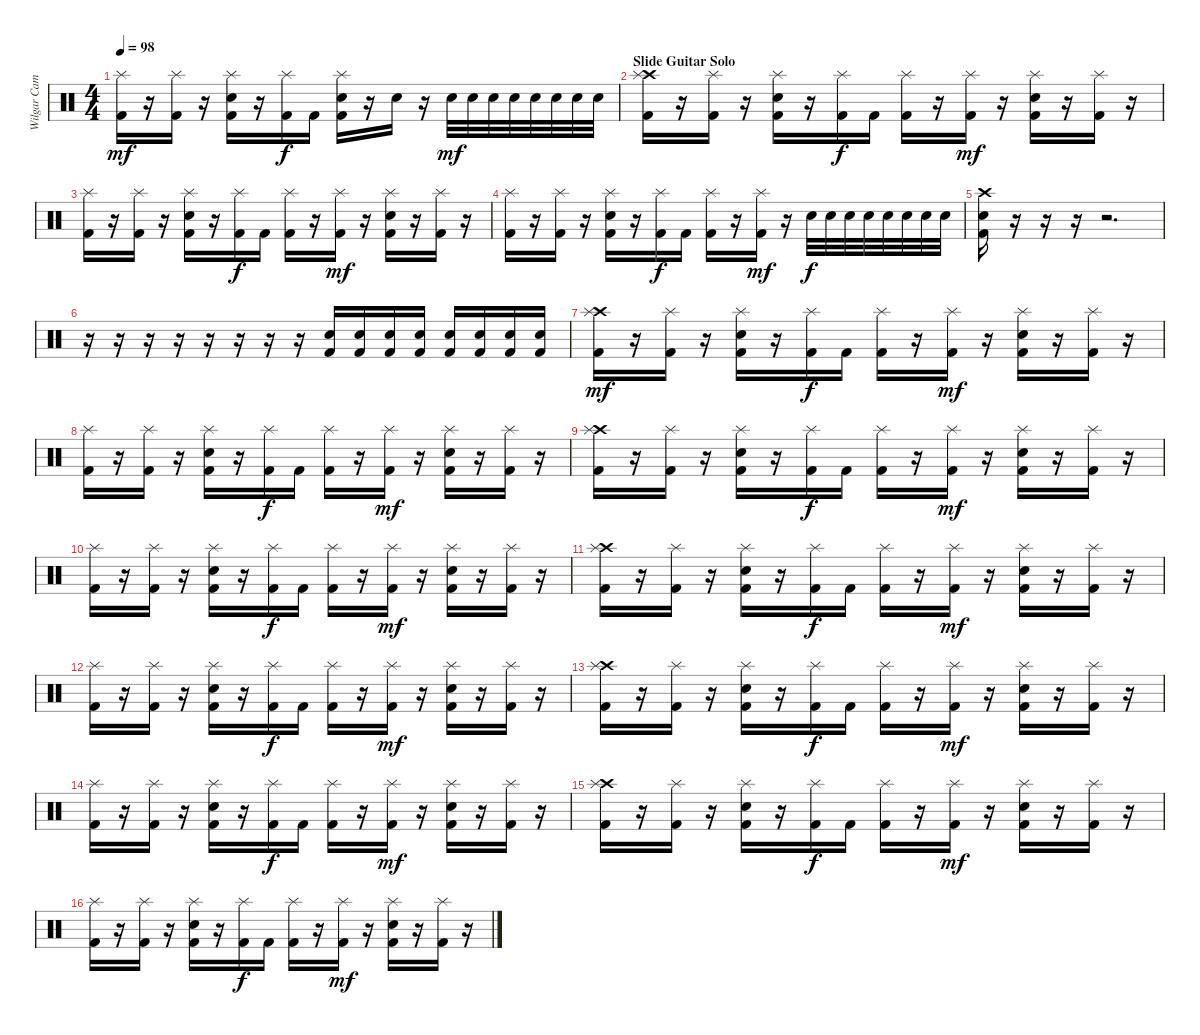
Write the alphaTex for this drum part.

\track ("Wilgar Campbell" "Wilgar Cam") {instrument percussion}
\staff {score}
\articulation defaults
\ts (4 4)
\tempo 98
\clef neutral
\ks c
("Splash (hit)" "Kick (hit) 2").16{dy mf} r.16 ("Splash (hit)" "Kick (hit) 2").16 r.16 ("Splash (hit)" "Snare (hit) 2" "Kick (hit) 2").16 r.16 ("Splash (hit)" "Kick (hit) 2").16{dy f} "Kick (hit) 2".16 ("Splash (hit)" "Snare (hit) 2" "Kick (hit) 2").16 r.16 "Snare (hit) 2".16 r.16 "Electric Snare (hit)".32{dy mf} "Electric Snare (hit)".32 "Electric Snare (hit)".32 "Electric Snare (hit)".32 "Snare (hit) 2".32 "Snare (hit) 2".32 "Snare (hit) 2".32 "Snare (hit) 2".32 |
\section ("" "Slide Guitar Solo")
("Crash high (hit)" "Splash (hit)" "Kick (hit) 2").16 r.16 ("Splash (hit)" "Kick (hit) 2").16 r.16 ("Splash (hit)" "Snare (hit) 2" "Kick (hit) 2").16 r.16 ("Splash (hit)" "Kick (hit) 2").16{dy f} "Kick (hit) 2".16 ("Splash (hit)" "Kick (hit) 2").16 r.16 ("Splash (hit)" "Kick (hit) 2").16{dy mf} r.16 ("Splash (hit)" "Snare (hit) 2" "Kick (hit) 2").16 r.16 ("Splash (hit)" "Kick (hit) 2").16 r.16 |
("Splash (hit)" "Kick (hit) 2").16 r.16 ("Splash (hit)" "Kick (hit) 2").16 r.16 ("Splash (hit)" "Snare (hit) 2" "Kick (hit) 2").16 r.16 ("Splash (hit)" "Kick (hit) 2").16{dy f} "Kick (hit) 2".16 ("Splash (hit)" "Kick (hit) 2").16 r.16 ("Splash (hit)" "Kick (hit) 2").16{dy mf} r.16 ("Splash (hit)" "Snare (hit) 2" "Kick (hit) 2").16 r.16 ("Splash (hit)" "Kick (hit) 2").16 r.16 |
("Splash (hit)" "Kick (hit) 2").16 r.16 ("Splash (hit)" "Kick (hit) 2").16 r.16 ("Splash (hit)" "Snare (hit) 2" "Kick (hit) 2").16 r.16 ("Splash (hit)" "Kick (hit) 2").16{dy f} "Kick (hit) 2".16 ("Splash (hit)" "Kick (hit) 2").16 r.16 ("Splash (hit)" "Kick (hit) 2").16{dy mf} r.16 "Snare (hit) 2".32{dy f} "Snare (hit) 2".32 "Snare (hit) 2".32 "Snare (hit) 2".32 "Snare (hit) 2".32 "Snare (hit) 2".32 "Snare (hit) 2".32 "Snare (hit) 2".32 |
("Crash high (hit)" "Snare (hit) 2" "Kick (hit) 2").16 r.16 r.16 r.16 r.2{d} |
r.16 r.16 r.16 r.16 r.16 r.16 r.16 r.16 ("Electric Snare (hit)" "Kick (hit) 2").16 ("Snare (hit) 2" "Kick (hit) 2").16 ("Snare (hit) 2" "Kick (hit) 2").16 ("Snare (hit) 2" "Kick (hit) 2").16 ("Snare (hit) 2" "Kick (hit) 2").16 ("Snare (hit) 2" "Kick (hit) 2").16 ("Snare (hit) 2" "Kick (hit) 2").16 ("Snare (hit) 2" "Kick (hit) 2").16 |
("Crash high (hit)" "Splash (hit)" "Kick (hit) 2").16{dy mf} r.16 ("Splash (hit)" "Kick (hit) 2").16 r.16 ("Splash (hit)" "Snare (hit) 2" "Kick (hit) 2").16 r.16 ("Splash (hit)" "Kick (hit) 2").16{dy f} "Kick (hit) 2".16 ("Splash (hit)" "Kick (hit) 2").16 r.16 ("Splash (hit)" "Kick (hit) 2").16{dy mf} r.16 ("Splash (hit)" "Snare (hit) 2" "Kick (hit) 2").16 r.16 ("Splash (hit)" "Kick (hit) 2").16 r.16 |
("Splash (hit)" "Kick (hit) 2").16 r.16 ("Splash (hit)" "Kick (hit) 2").16 r.16 ("Splash (hit)" "Snare (hit) 2" "Kick (hit) 2").16 r.16 ("Splash (hit)" "Kick (hit) 2").16{dy f} "Kick (hit) 2".16 ("Splash (hit)" "Kick (hit) 2").16 r.16 ("Splash (hit)" "Kick (hit) 2").16{dy mf} r.16 ("Splash (hit)" "Snare (hit) 2" "Kick (hit) 2").16 r.16 ("Splash (hit)" "Kick (hit) 2").16 r.16 |
("Crash high (hit)" "Splash (hit)" "Kick (hit) 2").16 r.16 ("Splash (hit)" "Kick (hit) 2").16 r.16 ("Splash (hit)" "Snare (hit) 2" "Kick (hit) 2").16 r.16 ("Splash (hit)" "Kick (hit) 2").16{dy f} "Kick (hit) 2".16 ("Splash (hit)" "Kick (hit) 2").16 r.16 ("Splash (hit)" "Kick (hit) 2").16{dy mf} r.16 ("Splash (hit)" "Snare (hit) 2" "Kick (hit) 2").16 r.16 ("Splash (hit)" "Kick (hit) 2").16 r.16 |
("Splash (hit)" "Kick (hit) 2").16 r.16 ("Splash (hit)" "Kick (hit) 2").16 r.16 ("Splash (hit)" "Snare (hit) 2" "Kick (hit) 2").16 r.16 ("Splash (hit)" "Kick (hit) 2").16{dy f} "Kick (hit) 2".16 ("Splash (hit)" "Kick (hit) 2").16 r.16 ("Splash (hit)" "Kick (hit) 2").16{dy mf} r.16 ("Splash (hit)" "Snare (hit) 2" "Kick (hit) 2").16 r.16 ("Splash (hit)" "Kick (hit) 2").16 r.16 |
("Crash high (hit)" "Splash (hit)" "Kick (hit) 2").16 r.16 ("Splash (hit)" "Kick (hit) 2").16 r.16 ("Splash (hit)" "Snare (hit) 2" "Kick (hit) 2").16 r.16 ("Splash (hit)" "Kick (hit) 2").16{dy f} "Kick (hit) 2".16 ("Splash (hit)" "Kick (hit) 2").16 r.16 ("Splash (hit)" "Kick (hit) 2").16{dy mf} r.16 ("Splash (hit)" "Snare (hit) 2" "Kick (hit) 2").16 r.16 ("Splash (hit)" "Kick (hit) 2").16 r.16 |
("Splash (hit)" "Kick (hit) 2").16 r.16 ("Splash (hit)" "Kick (hit) 2").16 r.16 ("Splash (hit)" "Snare (hit) 2" "Kick (hit) 2").16 r.16 ("Splash (hit)" "Kick (hit) 2").16{dy f} "Kick (hit) 2".16 ("Splash (hit)" "Kick (hit) 2").16 r.16 ("Splash (hit)" "Kick (hit) 2").16{dy mf} r.16 ("Splash (hit)" "Snare (hit) 2" "Kick (hit) 2").16 r.16 ("Splash (hit)" "Kick (hit) 2").16 r.16 |
("Crash high (hit)" "Splash (hit)" "Kick (hit) 2").16 r.16 ("Splash (hit)" "Kick (hit) 2").16 r.16 ("Splash (hit)" "Snare (hit) 2" "Kick (hit) 2").16 r.16 ("Splash (hit)" "Kick (hit) 2").16{dy f} "Kick (hit) 2".16 ("Splash (hit)" "Kick (hit) 2").16 r.16 ("Splash (hit)" "Kick (hit) 2").16{dy mf} r.16 ("Splash (hit)" "Snare (hit) 2" "Kick (hit) 2").16 r.16 ("Splash (hit)" "Kick (hit) 2").16 r.16 |
("Splash (hit)" "Kick (hit) 2").16 r.16 ("Splash (hit)" "Kick (hit) 2").16 r.16 ("Splash (hit)" "Snare (hit) 2" "Kick (hit) 2").16 r.16 ("Splash (hit)" "Kick (hit) 2").16{dy f} "Kick (hit) 2".16 ("Splash (hit)" "Kick (hit) 2").16 r.16 ("Splash (hit)" "Kick (hit) 2").16{dy mf} r.16 ("Splash (hit)" "Snare (hit) 2" "Kick (hit) 2").16 r.16 ("Splash (hit)" "Kick (hit) 2").16 r.16 |
("Crash high (hit)" "Splash (hit)" "Kick (hit) 2").16 r.16 ("Splash (hit)" "Kick (hit) 2").16 r.16 ("Splash (hit)" "Snare (hit) 2" "Kick (hit) 2").16 r.16 ("Splash (hit)" "Kick (hit) 2").16{dy f} "Kick (hit) 2".16 ("Splash (hit)" "Kick (hit) 2").16 r.16 ("Splash (hit)" "Kick (hit) 2").16{dy mf} r.16 ("Splash (hit)" "Snare (hit) 2" "Kick (hit) 2").16 r.16 ("Splash (hit)" "Kick (hit) 2").16 r.16 |
("Splash (hit)" "Kick (hit) 2").16 r.16 ("Splash (hit)" "Kick (hit) 2").16 r.16 ("Splash (hit)" "Snare (hit) 2" "Kick (hit) 2").16 r.16 ("Splash (hit)" "Kick (hit) 2").16{dy f} "Kick (hit) 2".16 ("Splash (hit)" "Kick (hit) 2").16 r.16 ("Splash (hit)" "Kick (hit) 2").16{dy mf} r.16 ("Splash (hit)" "Snare (hit) 2" "Kick (hit) 2").16 r.16 ("Splash (hit)" "Kick (hit) 2").16 r.16
